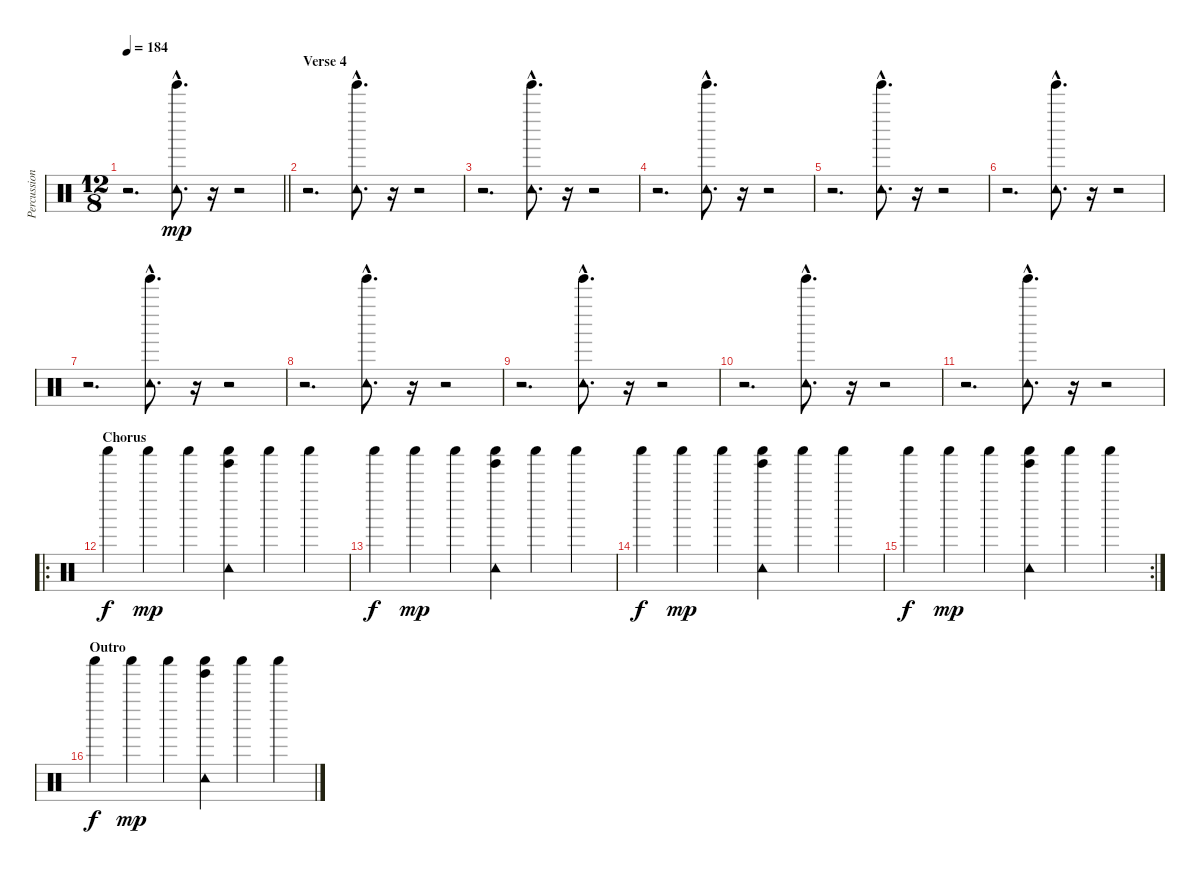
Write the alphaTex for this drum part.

\track ("Percussion" "Percussion") {instrument percussion}
\staff {score}
\articulation defaults
\ts (12 8)
\tempo 184
\clef neutral
\barLineRight lightlight
\ks c
r.2{d dy mp} ("Tambourine (hit)"{hac} "Tinkle Bell (hit)"{hac}).8{d} r.16 r.2 |
\section ("" "Verse 4")
r.2{d} ("Tambourine (hit)"{hac} "Tinkle Bell (hit)"{hac}).8{d} r.16 r.2 |
r.2{d} ("Tambourine (hit)"{hac} "Tinkle Bell (hit)"{hac}).8{d} r.16 r.2 |
r.2{d} ("Tambourine (hit)"{hac} "Tinkle Bell (hit)"{hac}).8{d} r.16 r.2 |
r.2{d} ("Tambourine (hit)"{hac} "Tinkle Bell (hit)"{hac}).8{d} r.16 r.2 |
r.2{d} ("Tambourine (hit)"{hac} "Tinkle Bell (hit)"{hac}).8{d} r.16 r.2 |
r.2{d} ("Tambourine (hit)"{hac} "Tinkle Bell (hit)"{hac}).8{d} r.16 r.2 |
r.2{d} ("Tambourine (hit)"{hac} "Tinkle Bell (hit)"{hac}).8{d} r.16 r.2 |
r.2{d} ("Tambourine (hit)"{hac} "Tinkle Bell (hit)"{hac}).8{d} r.16 r.2 |
r.2{d} ("Tambourine (hit)"{hac} "Tinkle Bell (hit)"{hac}).8{d} r.16 r.2 |
r.2{d} ("Tambourine (hit)"{hac} "Tinkle Bell (hit)"{hac}).8{d} r.16 r.2 |
\ro
\section ("" "Chorus")
"Shaker (hit)".4{dy f} "Shaker (hit)".4{dy mp} "Shaker (hit)".4 ("Tambourine (hit)" "Shaker (hit)" "Tinkle Bell (hit)").4 "Shaker (hit)".4 "Shaker (hit)".4 |
"Shaker (hit)".4{dy f} "Shaker (hit)".4{dy mp} "Shaker (hit)".4 ("Tambourine (hit)" "Shaker (hit)" "Tinkle Bell (hit)").4 "Shaker (hit)".4 "Shaker (hit)".4 |
"Shaker (hit)".4{dy f} "Shaker (hit)".4{dy mp} "Shaker (hit)".4 ("Tambourine (hit)" "Shaker (hit)" "Tinkle Bell (hit)").4 "Shaker (hit)".4 "Shaker (hit)".4 |
\rc 2 "Shaker (hit)".4{dy f} "Shaker (hit)".4{dy mp} "Shaker (hit)".4
("Tambourine (hit)" "Shaker (hit)" "Tinkle Bell (hit)").4 "Shaker (hit)".4 "Shaker (hit)".4 |
\section ("" "Outro")
"Shaker (hit)".4{dy f} "Shaker (hit)".4{dy mp} "Shaker (hit)".4 ("Tambourine (hit)" "Shaker (hit)" "Tinkle Bell (hit)").4 "Shaker (hit)".4 "Shaker (hit)".4
